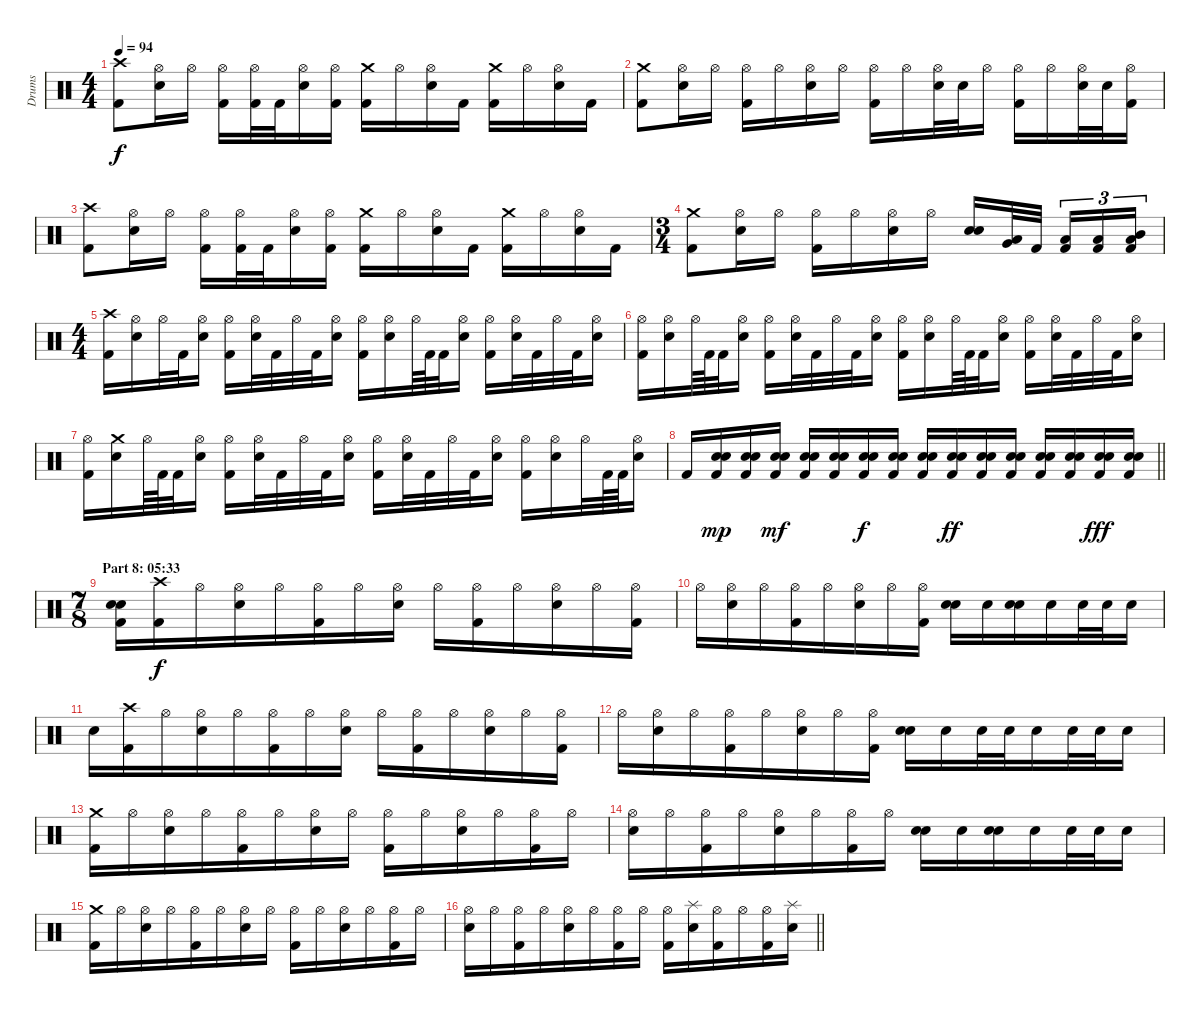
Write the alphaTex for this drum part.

\track ("Drums" "Drums") {instrument percussion}
\staff {score}
\articulation defaults
\ts (4 4)
\tempo 94
\clef neutral
\ks c
("Crash high (hit)" "Kick (hit) 2").8{dy f} ("Hi-Hat (open)" "Electric Snare (hit)").16 "Hi-Hat (open)".16 ("Hi-Hat (open)" "Kick (hit) 2").16 ("Hi-Hat (open)" "Kick (hit) 2").32 "Kick (hit) 2".32 ("Hi-Hat (open)" "Electric Snare (hit)").16 ("Hi-Hat (open)" "Kick (hit) 2").16 ("Crash medium (hit)" "Kick (hit) 2").16 "Hi-Hat (open)".16 ("Hi-Hat (open)" "Electric Snare (hit)").16 "Kick (hit) 2".16 ("Crash medium (hit)" "Kick (hit) 2").16 "Hi-Hat (open)".16 ("Hi-Hat (open)" "Electric Snare (hit)").16 "Kick (hit) 2".16 |
("Crash medium (hit)" "Kick (hit) 2").8 ("Hi-Hat (open)" "Electric Snare (hit)").16 "Hi-Hat (open)".16 ("Hi-Hat (open)" "Kick (hit) 2").16 "Hi-Hat (open)".16 ("Hi-Hat (open)" "Electric Snare (hit)").16 "Hi-Hat (open)".16 ("Hi-Hat (open)" "Kick (hit) 2").16 "Hi-Hat (open)".16 ("Hi-Hat (open)" "Electric Snare (hit)").32 "Electric Snare (hit)".32 "Hi-Hat (open)".16 ("Hi-Hat (open)" "Kick (hit) 2").16 "Hi-Hat (open)".16 ("Hi-Hat (open)" "Electric Snare (hit)").32 "Electric Snare (hit)".32 ("Hi-Hat (open)" "Kick (hit) 2").16 |
("Crash high (hit)" "Kick (hit) 2").8 ("Hi-Hat (open)" "Electric Snare (hit)").16 "Hi-Hat (open)".16 ("Hi-Hat (open)" "Kick (hit) 2").16 ("Hi-Hat (open)" "Kick (hit) 2").32 "Kick (hit) 2".32 ("Hi-Hat (open)" "Electric Snare (hit)").16 ("Hi-Hat (open)" "Kick (hit) 2").16 ("Crash medium (hit)" "Kick (hit) 2").16 "Hi-Hat (open)".16 ("Hi-Hat (open)" "Electric Snare (hit)").16 "Kick (hit) 2".16 ("Crash medium (hit)" "Kick (hit) 2").16 "Hi-Hat (open)".16 ("Hi-Hat (open)" "Electric Snare (hit)").16 "Kick (hit) 2".16 |
\ts (3 4)
("Crash medium (hit)" "Kick (hit) 2").8 ("Hi-Hat (open)" "Electric Snare (hit)").16 "Hi-Hat (open)".16 ("Hi-Hat (open)" "Kick (hit) 2").16 "Hi-Hat (open)".16 ("Hi-Hat (open)" "Electric Snare (hit)").16 "Hi-Hat (open)".16 ("Electric Snare (hit)" "Electric Snare (hit)").16{bu 60} ("Low Tom (hit)" "Very Low Tom (hit)").32{bu 60} "Kick (hit) 2".32{beam splitsecondary} ("Low Floor Tom (hit)" "Kick (hit) 2").16{tu (3 2)} ("Low Floor Tom (hit)" "Kick (hit) 2").16{tu (3 2)} ("Mid Tom (hit)" "Low Tom (hit)" "Kick (hit) 2").16{tu (3 2) bd 30} |
\ts (4 4)
("Crash high (hit)" "Kick (hit) 2").16 ("Hi-Hat (open)" "Electric Snare (hit)").16 "Hi-Hat (open)".32 "Kick (hit) 2".32 ("Hi-Hat (open)" "Electric Snare (hit)").16 ("Hi-Hat (open)" "Kick (hit) 2").16 ("Hi-Hat (open)" "Electric Snare (hit)").32 "Kick (hit) 2".32 "Hi-Hat (open)".32 "Kick (hit) 2".32 ("Hi-Hat (open)" "Electric Snare (hit)").16 ("Hi-Hat (open)" "Kick (hit) 2").16 ("Hi-Hat (open)" "Electric Snare (hit)").16 "Hi-Hat (open)".64 "Kick (hit) 2".64 "Kick (hit) 2".32 ("Hi-Hat (open)" "Electric Snare (hit)").16 ("Hi-Hat (open)" "Kick (hit) 2").16 ("Hi-Hat (open)" "Electric Snare (hit)").32 "Kick (hit) 2".32 "Hi-Hat (open)".32 "Kick (hit) 2".32 ("Hi-Hat (open)" "Electric Snare (hit)").16 |
("Hi-Hat (open)" "Kick (hit) 2").16 ("Hi-Hat (open)" "Electric Snare (hit)").16 "Hi-Hat (open)".64 "Kick (hit) 2".64 "Kick (hit) 2".32 ("Hi-Hat (open)" "Electric Snare (hit)").16 ("Hi-Hat (open)" "Kick (hit) 2").16 ("Hi-Hat (open)" "Electric Snare (hit)").32 "Kick (hit) 2".32 "Hi-Hat (open)".32 "Kick (hit) 2".32 ("Hi-Hat (open)" "Electric Snare (hit)").16 ("Hi-Hat (open)" "Kick (hit) 2").16 ("Hi-Hat (open)" "Electric Snare (hit)").16 "Hi-Hat (open)".64 "Kick (hit) 2".64 "Kick (hit) 2".32 ("Hi-Hat (open)" "Electric Snare (hit)").16 ("Hi-Hat (open)" "Kick (hit) 2").16 ("Hi-Hat (open)" "Electric Snare (hit)").32 "Kick (hit) 2".32 "Hi-Hat (open)".32 "Kick (hit) 2".32 ("Hi-Hat (open)" "Electric Snare (hit)").16 |
("Hi-Hat (open)" "Kick (hit) 2").16 ("Crash medium (hit)" "Electric Snare (hit)").16 "Hi-Hat (open)".64 "Kick (hit) 2".64 "Kick (hit) 2".32 ("Hi-Hat (open)" "Electric Snare (hit)").16 ("Hi-Hat (open)" "Kick (hit) 2").16 ("Hi-Hat (open)" "Electric Snare (hit)").32 "Kick (hit) 2".32 "Hi-Hat (open)".32 "Kick (hit) 2".32 ("Hi-Hat (open)" "Electric Snare (hit)").16 ("Hi-Hat (open)" "Kick (hit) 2").16 ("Hi-Hat (open)" "Electric Snare (hit)").32 "Kick (hit) 2".32 "Hi-Hat (open)".32 "Kick (hit) 2".32 ("Hi-Hat (open)" "Electric Snare (hit)").16 ("Hi-Hat (open)" "Kick (hit) 2").16 ("Hi-Hat (open)" "Electric Snare (hit)").16 "Hi-Hat (open)".32 "Kick (hit) 2".64 "Kick (hit) 2".64 ("Hi-Hat (open)" "Electric Snare (hit)").16 |
\barLineRight lightlight "Kick (hit) 2".16
("Kick (hit) 2" "Electric Snare (hit)" "Electric Snare (hit)").16{bu 30 dy mp} ("Kick (hit) 2" "Electric Snare (hit)" "Electric Snare (hit)").16{bu 30} ("Kick (hit) 2" "Electric Snare (hit)" "Electric Snare (hit)").16{bu 30 dy mf} ("Kick (hit) 2" "Electric Snare (hit)" "Electric Snare (hit)").16{bu 30} ("Kick (hit) 2" "Electric Snare (hit)" "Electric Snare (hit)").16{bu 30} ("Kick (hit) 2" "Electric Snare (hit)" "Electric Snare (hit)").16{bu 30 dy f} ("Kick (hit) 2" "Electric Snare (hit)" "Electric Snare (hit)").16{bu 30} ("Kick (hit) 2" "Electric Snare (hit)" "Electric Snare (hit)").16{bu 30} ("Kick (hit) 2" "Electric Snare (hit)" "Electric Snare (hit)").16{bu 30 dy ff} ("Kick (hit) 2" "Electric Snare (hit)" "Electric Snare (hit)").16{bu 30} ("Kick (hit) 2" "Electric Snare (hit)" "Electric Snare (hit)").16{bu 30} ("Kick (hit) 2" "Electric Snare (hit)" "Electric Snare (hit)").16{bu 30} ("Kick (hit) 2" "Electric Snare (hit)" "Electric Snare (hit)").16{bu 30} ("Kick (hit) 2" "Electric Snare (hit)" "Electric Snare (hit)").16{bu 30 dy fff} ("Kick (hit) 2" "Electric Snare (hit)" "Electric Snare (hit)").16{bu 30} |
\ts (7 8)
\section ("" "Part 8: 05:33")
("Kick (hit) 2" "Electric Snare (hit)" "Electric Snare (hit)").16{bu 30} ("Crash high (hit)" "Kick (hit) 2").16{dy f} "Hi-Hat (open)".16 ("Hi-Hat (open)" "Electric Snare (hit)").16 "Hi-Hat (open)".16 ("Hi-Hat (open)" "Kick (hit) 2").16 "Hi-Hat (open)".16 ("Hi-Hat (open)" "Electric Snare (hit)").16 "Hi-Hat (open)".16 ("Hi-Hat (open)" "Kick (hit) 2").16 "Hi-Hat (open)".16 ("Hi-Hat (open)" "Electric Snare (hit)").16 "Hi-Hat (open)".16 ("Hi-Hat (open)" "Kick (hit) 2").16 |
"Hi-Hat (open)".16 ("Hi-Hat (open)" "Electric Snare (hit)").16 "Hi-Hat (open)".16 ("Hi-Hat (open)" "Kick (hit) 2").16 "Hi-Hat (open)".16 ("Hi-Hat (open)" "Electric Snare (hit)").16 "Hi-Hat (open)".16 ("Hi-Hat (open)" "Kick (hit) 2").16 ("Electric Snare (hit)" "Electric Snare (hit)").16{bd 120} "Electric Snare (hit)".16 ("Electric Snare (hit)" "Electric Snare (hit)").16{bd 120} "Electric Snare (hit)".16 "Electric Snare (hit)".32 "Electric Snare (hit)".32 "Electric Snare (hit)".16 |
"Electric Snare (hit)".16 ("Crash high (hit)" "Kick (hit) 2").16 "Hi-Hat (open)".16 ("Hi-Hat (open)" "Electric Snare (hit)").16 "Hi-Hat (open)".16 ("Hi-Hat (open)" "Kick (hit) 2").16 "Hi-Hat (open)".16 ("Hi-Hat (open)" "Electric Snare (hit)").16 "Hi-Hat (open)".16 ("Hi-Hat (open)" "Kick (hit) 2").16 "Hi-Hat (open)".16 ("Hi-Hat (open)" "Electric Snare (hit)").16 "Hi-Hat (open)".16 ("Hi-Hat (open)" "Kick (hit) 2").16 |
"Hi-Hat (open)".16 ("Hi-Hat (open)" "Electric Snare (hit)").16 "Hi-Hat (open)".16 ("Hi-Hat (open)" "Kick (hit) 2").16 "Hi-Hat (open)".16 ("Hi-Hat (open)" "Electric Snare (hit)").16 "Hi-Hat (open)".16 ("Hi-Hat (open)" "Kick (hit) 2").16 ("Electric Snare (hit)" "Electric Snare (hit)").16{bd 120} "Electric Snare (hit)".16 "Electric Snare (hit)".32 "Electric Snare (hit)".32 "Electric Snare (hit)".16 "Electric Snare (hit)".32 "Electric Snare (hit)".32 "Electric Snare (hit)".16 |
("Crash medium (hit)" "Kick (hit) 2").16 "Hi-Hat (open)".16 ("Hi-Hat (open)" "Electric Snare (hit)").16 "Hi-Hat (open)".16 ("Hi-Hat (open)" "Kick (hit) 2").16 "Hi-Hat (open)".16 ("Hi-Hat (open)" "Electric Snare (hit)").16 "Hi-Hat (open)".16 ("Hi-Hat (open)" "Kick (hit) 2").16 "Hi-Hat (open)".16 ("Hi-Hat (open)" "Electric Snare (hit)").16 "Hi-Hat (open)".16 ("Hi-Hat (open)" "Kick (hit) 2").16 "Hi-Hat (open)".16 |
("Hi-Hat (open)" "Electric Snare (hit)").16 "Hi-Hat (open)".16 ("Hi-Hat (open)" "Kick (hit) 2").16 "Hi-Hat (open)".16 ("Hi-Hat (open)" "Electric Snare (hit)").16 "Hi-Hat (open)".16 ("Hi-Hat (open)" "Kick (hit) 2").16 "Hi-Hat (open)".16 ("Electric Snare (hit)" "Electric Snare (hit)").16{bd 120} "Electric Snare (hit)".16 ("Electric Snare (hit)" "Electric Snare (hit)").16{bd 120} "Electric Snare (hit)".16 "Electric Snare (hit)".32 "Electric Snare (hit)".32 "Electric Snare (hit)".16 |
("Crash medium (hit)" "Kick (hit) 2").16 "Hi-Hat (open)".16 ("Hi-Hat (open)" "Electric Snare (hit)").16 "Hi-Hat (open)".16 ("Hi-Hat (open)" "Kick (hit) 2").16 "Hi-Hat (open)".16 ("Hi-Hat (open)" "Electric Snare (hit)").16 "Hi-Hat (open)".16 ("Hi-Hat (open)" "Kick (hit) 2").16 "Hi-Hat (open)".16 ("Hi-Hat (open)" "Electric Snare (hit)").16 "Hi-Hat (open)".16 ("Hi-Hat (open)" "Kick (hit) 2").16 "Hi-Hat (open)".16 |
\barLineRight lightlight
("Hi-Hat (open)" "Electric Snare (hit)").16 "Hi-Hat (open)".16 ("Hi-Hat (open)" "Kick (hit) 2").16 "Hi-Hat (open)".16 ("Hi-Hat (open)" "Electric Snare (hit)").16 "Hi-Hat (open)".16 ("Hi-Hat (open)" "Kick (hit) 2").16 "Hi-Hat (open)".16 ("Hi-Hat (open)" "Kick (hit) 2").16 ("Splash (hit)" "Electric Snare (hit)").16 ("Hi-Hat (open)" "Kick (hit) 2").16 "Hi-Hat (open)".16 ("Hi-Hat (open)" "Kick (hit) 2").16 ("Splash (hit)" "Electric Snare (hit)").16
